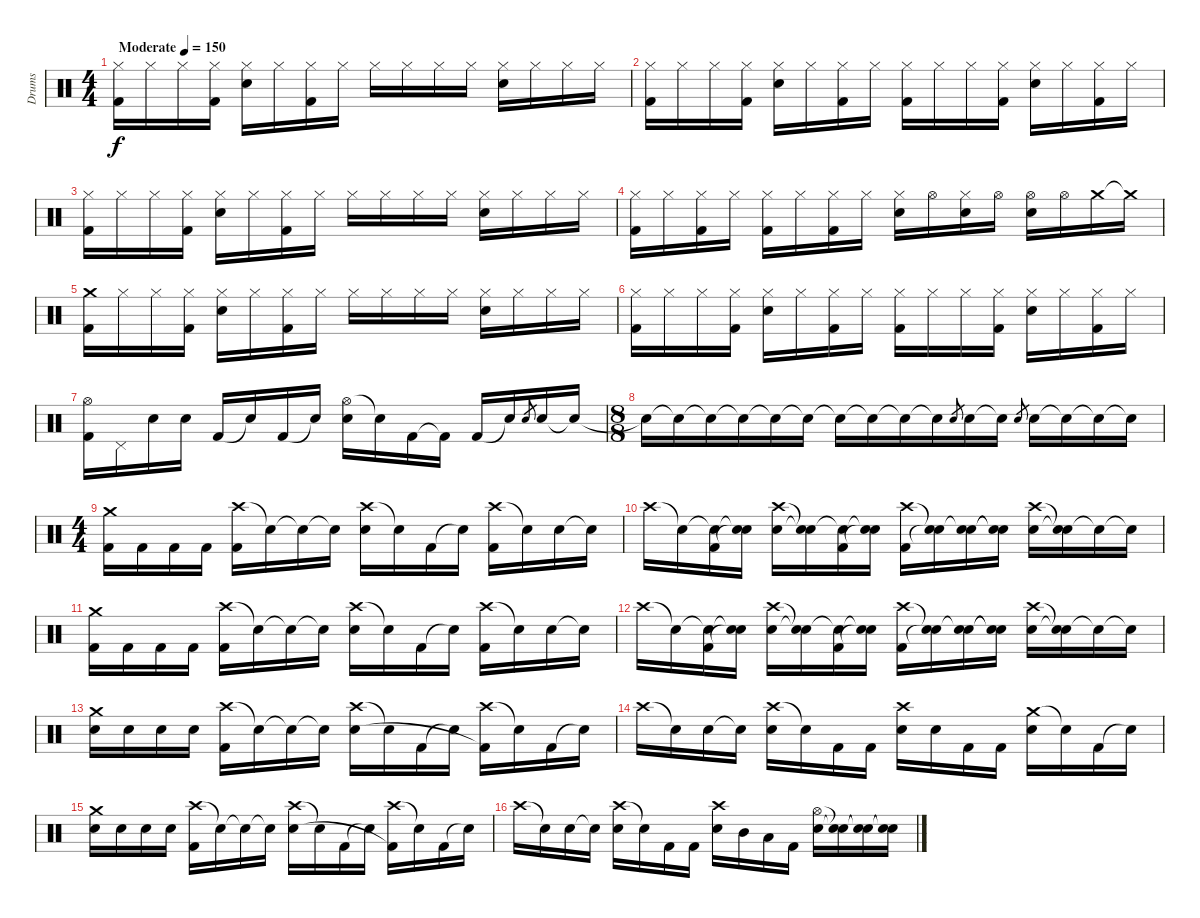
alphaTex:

\track ("Drums" "Drums") {instrument percussion}
\staff {score}
\articulation defaults
\ts (4 4)
\tempo (150 "Moderate")
\clef neutral
\ks c
("Hi-Hat (closed)" "Kick (hit) 2").16{dy f} "Hi-Hat (closed)".16 "Hi-Hat (closed)".16 ("Hi-Hat (closed)" "Kick (hit) 2").16 ("Hi-Hat (closed)" "Electric Snare (hit)").16 "Hi-Hat (closed)".16 ("Hi-Hat (closed)" "Kick (hit) 2").16 "Hi-Hat (closed)".16 "Hi-Hat (closed)".16 "Hi-Hat (closed)".16 "Hi-Hat (closed)".16 "Hi-Hat (closed)".16 ("Hi-Hat (closed)" "Electric Snare (hit)").16 "Hi-Hat (closed)".16 "Hi-Hat (closed)".16 "Hi-Hat (closed)".16 |
("Hi-Hat (closed)" "Kick (hit) 2").16 "Hi-Hat (closed)".16 "Hi-Hat (closed)".16 ("Hi-Hat (closed)" "Kick (hit) 2").16 ("Hi-Hat (closed)" "Electric Snare (hit)").16 "Hi-Hat (closed)".16 ("Hi-Hat (closed)" "Kick (hit) 2").16 "Hi-Hat (closed)".16 ("Hi-Hat (closed)" "Kick (hit) 2").16 "Hi-Hat (closed)".16 "Hi-Hat (closed)".16 ("Hi-Hat (closed)" "Kick (hit) 2").16 ("Hi-Hat (closed)" "Electric Snare (hit)").16 "Hi-Hat (closed)".16 ("Hi-Hat (closed)" "Kick (hit) 2").16 "Hi-Hat (closed)".16 |
("Hi-Hat (closed)" "Kick (hit) 2").16 "Hi-Hat (closed)".16 "Hi-Hat (closed)".16 ("Hi-Hat (closed)" "Kick (hit) 2").16 ("Hi-Hat (closed)" "Electric Snare (hit)").16 "Hi-Hat (closed)".16 ("Hi-Hat (closed)" "Kick (hit) 2").16 "Hi-Hat (closed)".16 "Hi-Hat (closed)".16 "Hi-Hat (closed)".16 "Hi-Hat (closed)".16 "Hi-Hat (closed)".16 ("Hi-Hat (closed)" "Electric Snare (hit)").16 "Hi-Hat (closed)".16 "Hi-Hat (closed)".16 "Hi-Hat (closed)".16 |
("Hi-Hat (closed)" "Kick (hit) 2").16 "Hi-Hat (closed)".16 ("Hi-Hat (closed)" "Kick (hit) 2").16 "Hi-Hat (closed)".16 ("Hi-Hat (closed)" "Kick (hit) 2").16 "Hi-Hat (closed)".16 ("Hi-Hat (closed)" "Kick (hit) 2").16 "Hi-Hat (closed)".16 ("Hi-Hat (closed)" "Electric Snare (hit)").16 "Hi-Hat (open)".16 ("Hi-Hat (closed)" "Electric Snare (hit)").16 "Hi-Hat (open)".16 ("Hi-Hat (open)" "Electric Snare (hit)").16 "Hi-Hat (open)".16 "Crash medium (hit)".16 "Crash medium (hit)"{t}.16 |
("Crash medium (hit)" "Kick (hit) 2").16 "Hi-Hat (closed)".16 "Hi-Hat (closed)".16 ("Hi-Hat (closed)" "Kick (hit) 2").16 ("Hi-Hat (closed)" "Electric Snare (hit)").16 "Hi-Hat (closed)".16 ("Hi-Hat (closed)" "Kick (hit) 2").16 "Hi-Hat (closed)".16 "Hi-Hat (closed)".16 "Hi-Hat (closed)".16 "Hi-Hat (closed)".16 "Hi-Hat (closed)".16 ("Hi-Hat (closed)" "Electric Snare (hit)").16 "Hi-Hat (closed)".16 "Hi-Hat (closed)".16 "Hi-Hat (closed)".16 |
("Hi-Hat (closed)" "Kick (hit) 2").16 "Hi-Hat (closed)".16 "Hi-Hat (closed)".16 ("Hi-Hat (closed)" "Kick (hit) 2").16 ("Hi-Hat (closed)" "Electric Snare (hit)").16 "Hi-Hat (closed)".16 ("Hi-Hat (closed)" "Kick (hit) 2").16 "Hi-Hat (closed)".16 ("Hi-Hat (closed)" "Kick (hit) 2").16 "Hi-Hat (closed)".16 "Hi-Hat (closed)".16 ("Hi-Hat (closed)" "Kick (hit) 2").16 ("Hi-Hat (closed)" "Electric Snare (hit)").16 "Hi-Hat (closed)".16 ("Hi-Hat (closed)" "Kick (hit) 2").16 "Hi-Hat (closed)".16 |
("Hi-Hat (open)" "Kick (hit) 2").16 "Pedal Hi-Hat (hit)".16 "Electric Snare (hit)".16 "Electric Snare (hit)".16 "Kick (hit) 2".16 "Snare (hit)"{t}.16 "Kick (hit) 2".16 "Snare (hit)"{t}.16 ("Hi-Hat (open)" "Electric Snare (hit)").16 "Snare (hit)"{t}.16 "Kick (hit) 2".16 "Kick (hit) 2"{t}.16 "Kick (hit) 2".16 "Snare (hit)"{t}.16 "Electric Snare (hit)".8{gr} "Electric Snare (hit)".16 "Snare (hit)"{t}.16 |
\ts (8 8)
"Snare (hit)"{t}.16 "Snare (hit)"{t}.16 "Snare (hit)"{t}.16 "Snare (hit)"{t}.16 "Snare (hit)"{t}.16 "Snare (hit)"{t}.16 "Snare (hit)"{t}.16 "Snare (hit)"{t}.16 "Snare (hit)"{t}.16 "Snare (hit)"{t}.16 "Electric Snare (hit)".8{gr} "Electric Snare (hit)".16 "Snare (hit)"{t}.16 "Electric Snare (hit)".8{gr} "Electric Snare (hit)".16 "Snare (hit)"{t}.16 "Snare (hit)"{t}.16 "Snare (hit)"{t}.16 |
\ts (4 4)
("Crash medium (hit)" "Kick (hit) 2").16 "Kick (hit) 2".16 "Kick (hit) 2".16 "Kick (hit) 2".16 ("Crash high (hit)" "Kick (hit) 2").16 "Snare (hit)"{t}.16 "Snare (hit)"{t}.16 "Snare (hit)"{t}.16 ("Crash high (hit)" "Electric Snare (hit)").16 "Snare (hit)"{t}.16 "Kick (hit) 2".16 "Snare (hit)"{t}.16 ("Crash high (hit)" "Kick (hit) 2").16 "Snare (hit)"{t}.16 "Electric Snare (hit)".16 "Snare (hit)"{t}.16 |
"Crash high (hit)".16 "Snare (hit)"{t}.16 ("Snare (hit)"{t} "Kick (hit) 2").16 ("Snare (hit)"{t} "Snare (hit)"{t}).16 ("Crash high (hit)" "Electric Snare (hit)").16 ("Snare (hit)"{t} "Snare (hit)"{t}).16 ("Snare (hit)"{t} "Kick (hit) 2").16 ("Snare (hit)"{t} "Snare (hit)"{t}).16 ("Crash high (hit)" "Kick (hit) 2").16 ("Snare (hit)"{t} "Snare (hit)"{t}).16 ("Snare (hit)"{t} "Electric Snare (hit)").16 ("Snare (hit)"{t} "Snare (hit)"{t}).16 ("Crash high (hit)" "Electric Snare (hit)").16 ("Snare (hit)"{t} "Snare (hit)"{t}).16 "Snare (hit)"{t}.16 "Snare (hit)"{t}.16 |
("Crash medium (hit)" "Kick (hit) 2").16 "Kick (hit) 2".16 "Kick (hit) 2".16 "Kick (hit) 2".16 ("Crash high (hit)" "Kick (hit) 2").16 "Snare (hit)"{t}.16 "Snare (hit)"{t}.16 "Snare (hit)"{t}.16 ("Crash high (hit)" "Electric Snare (hit)").16 "Snare (hit)"{t}.16 "Kick (hit) 2".16 "Snare (hit)"{t}.16 ("Crash high (hit)" "Kick (hit) 2").16 "Snare (hit)"{t}.16 "Electric Snare (hit)".16 "Snare (hit)"{t}.16 |
"Crash high (hit)".16 "Snare (hit)"{t}.16 ("Snare (hit)"{t} "Kick (hit) 2").16 ("Snare (hit)"{t} "Snare (hit)"{t}).16 ("Crash high (hit)" "Electric Snare (hit)").16 ("Snare (hit)"{t} "Snare (hit)"{t}).16 ("Snare (hit)"{t} "Kick (hit) 2").16 ("Snare (hit)"{t} "Snare (hit)"{t}).16 ("Crash high (hit)" "Kick (hit) 2").16 ("Snare (hit)"{t} "Snare (hit)"{t}).16 ("Snare (hit)"{t} "Electric Snare (hit)").16 ("Snare (hit)"{t} "Snare (hit)"{t}).16 ("Crash high (hit)" "Electric Snare (hit)").16 ("Snare (hit)"{t} "Snare (hit)"{t}).16 "Snare (hit)"{t}.16 "Snare (hit)"{t}.16 |
("Crash medium (hit)" "Electric Snare (hit)").16 "Electric Snare (hit)".16 "Electric Snare (hit)".16 "Electric Snare (hit)".16 ("Crash high (hit)" "Kick (hit) 2").16 "Snare (hit)"{t}.16 "Snare (hit)"{t}.16 "Snare (hit)"{t}.16 ("Crash high (hit)" "Electric Snare (hit)").16 "Snare (hit)"{t}.16 "Kick (hit) 2".16 "Snare (hit)"{t}.16 ("Crash high (hit)" "Kick (hit) 2"{t}).16 "Snare (hit)"{t}.16 "Kick (hit) 2".16 "Snare (hit)"{t}.16 |
"Crash high (hit)".16 "Snare (hit)"{t}.16 "Electric Snare (hit)".16 "Snare (hit)"{t}.16 ("Crash high (hit)" "Electric Snare (hit)").16 "Snare (hit)"{t}.16 "Kick (hit) 2".16 "Kick (hit) 2".16 ("Crash high (hit)" "Electric Snare (hit)").16 "Electric Snare (hit)".16 "Kick (hit) 2".16 "Kick (hit) 2".16 ("Crash medium (hit)" "Electric Snare (hit)").16 "Snare (hit)"{t}.16 "Kick (hit) 2".16 "Snare (hit)"{t}.16 |
("Crash medium (hit)" "Electric Snare (hit)").16 "Electric Snare (hit)".16 "Electric Snare (hit)".16 "Electric Snare (hit)".16 ("Crash high (hit)" "Kick (hit) 2").16 "Snare (hit)"{t}.16 "Snare (hit)"{t}.16 "Snare (hit)"{t}.16 ("Crash high (hit)" "Electric Snare (hit)").16 "Snare (hit)"{t}.16 "Kick (hit) 2".16 "Snare (hit)"{t}.16 ("Crash high (hit)" "Kick (hit) 2"{t}).16 "Snare (hit)"{t}.16 "Kick (hit) 2".16 "Snare (hit)"{t}.16 |
"Crash high (hit)".16 "Snare (hit)"{t}.16 "Electric Snare (hit)".16 "Snare (hit)"{t}.16 ("Crash high (hit)" "Electric Snare (hit)").16 "Snare (hit)"{t}.16 "Kick (hit) 2".16 "Kick (hit) 2".16 ("Crash high (hit)" "Electric Snare (hit)").16 "Mid Tom (hit)".16 "Low Tom (hit)".16 "Kick (hit) 2".16 ("Hi-Hat (open)" "Electric Snare (hit)").16 ("Snare (hit)"{t} "Snare (hit)"{t}).16 ("Snare (hit)"{t} "Snare (hit)"{t}).16 ("Snare (hit)"{t} "Snare (hit)"{t}).16
